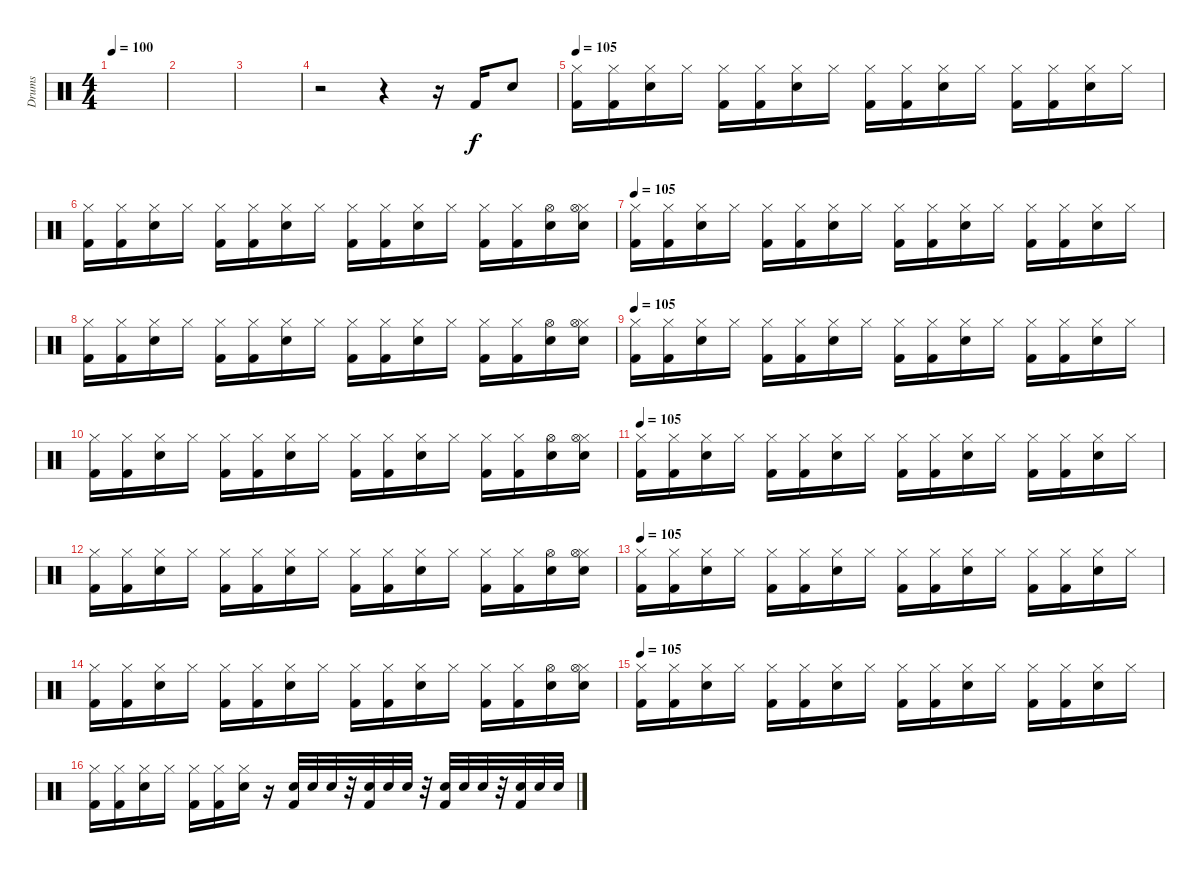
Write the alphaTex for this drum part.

\track ("Drums" "Drums") {instrument percussion}
\staff {score}
\articulation defaults
\ts (4 4)
\tempo 100
\clef neutral
\ks c
|
|
|
r.2 r.4 r.16 "Kick (hit) 2".16 "Snare (hit) 2".8 |
\tempo 105
("Hi-Hat (closed)" "Kick (hit) 2").16 ("Hi-Hat (closed)" "Kick (hit) 2").16 ("Hi-Hat (closed)" "Snare (hit) 2").16 "Hi-Hat (closed)".16 ("Hi-Hat (closed)" "Kick (hit) 2").16 ("Hi-Hat (closed)" "Kick (hit) 2").16 ("Hi-Hat (closed)" "Snare (hit) 2").16 "Hi-Hat (closed)".16 ("Hi-Hat (closed)" "Kick (hit) 2").16 ("Hi-Hat (closed)" "Kick (hit) 2").16 ("Hi-Hat (closed)" "Snare (hit) 2").16 "Hi-Hat (closed)".16 ("Hi-Hat (closed)" "Kick (hit) 2").16 ("Hi-Hat (closed)" "Kick (hit) 2").16 ("Hi-Hat (closed)" "Snare (hit) 2").16 "Hi-Hat (closed)".16 |
("Hi-Hat (closed)" "Kick (hit) 2").16 ("Hi-Hat (closed)" "Kick (hit) 2").16 ("Hi-Hat (closed)" "Snare (hit) 2").16 "Hi-Hat (closed)".16 ("Hi-Hat (closed)" "Kick (hit) 2").16 ("Hi-Hat (closed)" "Kick (hit) 2").16 ("Hi-Hat (closed)" "Snare (hit) 2").16 "Hi-Hat (closed)".16 ("Hi-Hat (closed)" "Kick (hit) 2").16 ("Hi-Hat (closed)" "Kick (hit) 2").16 ("Hi-Hat (closed)" "Snare (hit) 2").16 "Hi-Hat (closed)".16 ("Hi-Hat (closed)" "Kick (hit) 2").16 ("Hi-Hat (closed)" "Kick (hit) 2").16 ("Hi-Hat (open)" "Snare (hit) 2").16 ("Hi-Hat (closed)" "Hi-Hat (open)" "Snare (hit) 2").16 |
\tempo 105
("Hi-Hat (closed)" "Kick (hit) 2").16 ("Hi-Hat (closed)" "Kick (hit) 2").16 ("Hi-Hat (closed)" "Snare (hit) 2").16 "Hi-Hat (closed)".16 ("Hi-Hat (closed)" "Kick (hit) 2").16 ("Hi-Hat (closed)" "Kick (hit) 2").16 ("Hi-Hat (closed)" "Snare (hit) 2").16 "Hi-Hat (closed)".16 ("Hi-Hat (closed)" "Kick (hit) 2").16 ("Hi-Hat (closed)" "Kick (hit) 2").16 ("Hi-Hat (closed)" "Snare (hit) 2").16 "Hi-Hat (closed)".16 ("Hi-Hat (closed)" "Kick (hit) 2").16 ("Hi-Hat (closed)" "Kick (hit) 2").16 ("Hi-Hat (closed)" "Snare (hit) 2").16 "Hi-Hat (closed)".16 |
("Hi-Hat (closed)" "Kick (hit) 2").16 ("Hi-Hat (closed)" "Kick (hit) 2").16 ("Hi-Hat (closed)" "Snare (hit) 2").16 "Hi-Hat (closed)".16 ("Hi-Hat (closed)" "Kick (hit) 2").16 ("Hi-Hat (closed)" "Kick (hit) 2").16 ("Hi-Hat (closed)" "Snare (hit) 2").16 "Hi-Hat (closed)".16 ("Hi-Hat (closed)" "Kick (hit) 2").16 ("Hi-Hat (closed)" "Kick (hit) 2").16 ("Hi-Hat (closed)" "Snare (hit) 2").16 "Hi-Hat (closed)".16 ("Hi-Hat (closed)" "Kick (hit) 2").16 ("Hi-Hat (closed)" "Kick (hit) 2").16 ("Hi-Hat (open)" "Snare (hit) 2").16 ("Hi-Hat (closed)" "Hi-Hat (open)" "Snare (hit) 2").16 |
\tempo 105
("Hi-Hat (closed)" "Kick (hit) 2").16 ("Hi-Hat (closed)" "Kick (hit) 2").16 ("Hi-Hat (closed)" "Snare (hit) 2").16 "Hi-Hat (closed)".16 ("Hi-Hat (closed)" "Kick (hit) 2").16 ("Hi-Hat (closed)" "Kick (hit) 2").16 ("Hi-Hat (closed)" "Snare (hit) 2").16 "Hi-Hat (closed)".16 ("Hi-Hat (closed)" "Kick (hit) 2").16 ("Hi-Hat (closed)" "Kick (hit) 2").16 ("Hi-Hat (closed)" "Snare (hit) 2").16 "Hi-Hat (closed)".16 ("Hi-Hat (closed)" "Kick (hit) 2").16 ("Hi-Hat (closed)" "Kick (hit) 2").16 ("Hi-Hat (closed)" "Snare (hit) 2").16 "Hi-Hat (closed)".16 |
("Hi-Hat (closed)" "Kick (hit) 2").16 ("Hi-Hat (closed)" "Kick (hit) 2").16 ("Hi-Hat (closed)" "Snare (hit) 2").16 "Hi-Hat (closed)".16 ("Hi-Hat (closed)" "Kick (hit) 2").16 ("Hi-Hat (closed)" "Kick (hit) 2").16 ("Hi-Hat (closed)" "Snare (hit) 2").16 "Hi-Hat (closed)".16 ("Hi-Hat (closed)" "Kick (hit) 2").16 ("Hi-Hat (closed)" "Kick (hit) 2").16 ("Hi-Hat (closed)" "Snare (hit) 2").16 "Hi-Hat (closed)".16 ("Hi-Hat (closed)" "Kick (hit) 2").16 ("Hi-Hat (closed)" "Kick (hit) 2").16 ("Hi-Hat (open)" "Snare (hit) 2").16 ("Hi-Hat (closed)" "Hi-Hat (open)" "Snare (hit) 2").16 |
\tempo 105
("Hi-Hat (closed)" "Kick (hit) 2").16 ("Hi-Hat (closed)" "Kick (hit) 2").16 ("Hi-Hat (closed)" "Snare (hit) 2").16 "Hi-Hat (closed)".16 ("Hi-Hat (closed)" "Kick (hit) 2").16 ("Hi-Hat (closed)" "Kick (hit) 2").16 ("Hi-Hat (closed)" "Snare (hit) 2").16 "Hi-Hat (closed)".16 ("Hi-Hat (closed)" "Kick (hit) 2").16 ("Hi-Hat (closed)" "Kick (hit) 2").16 ("Hi-Hat (closed)" "Snare (hit) 2").16 "Hi-Hat (closed)".16 ("Hi-Hat (closed)" "Kick (hit) 2").16 ("Hi-Hat (closed)" "Kick (hit) 2").16 ("Hi-Hat (closed)" "Snare (hit) 2").16 "Hi-Hat (closed)".16 |
("Hi-Hat (closed)" "Kick (hit) 2").16 ("Hi-Hat (closed)" "Kick (hit) 2").16 ("Hi-Hat (closed)" "Snare (hit) 2").16 "Hi-Hat (closed)".16 ("Hi-Hat (closed)" "Kick (hit) 2").16 ("Hi-Hat (closed)" "Kick (hit) 2").16 ("Hi-Hat (closed)" "Snare (hit) 2").16 "Hi-Hat (closed)".16 ("Hi-Hat (closed)" "Kick (hit) 2").16 ("Hi-Hat (closed)" "Kick (hit) 2").16 ("Hi-Hat (closed)" "Snare (hit) 2").16 "Hi-Hat (closed)".16 ("Hi-Hat (closed)" "Kick (hit) 2").16 ("Hi-Hat (closed)" "Kick (hit) 2").16 ("Hi-Hat (open)" "Snare (hit) 2").16 ("Hi-Hat (closed)" "Hi-Hat (open)" "Snare (hit) 2").16 |
\tempo 105
("Hi-Hat (closed)" "Kick (hit) 2").16 ("Hi-Hat (closed)" "Kick (hit) 2").16 ("Hi-Hat (closed)" "Snare (hit) 2").16 "Hi-Hat (closed)".16 ("Hi-Hat (closed)" "Kick (hit) 2").16 ("Hi-Hat (closed)" "Kick (hit) 2").16 ("Hi-Hat (closed)" "Snare (hit) 2").16 "Hi-Hat (closed)".16 ("Hi-Hat (closed)" "Kick (hit) 2").16 ("Hi-Hat (closed)" "Kick (hit) 2").16 ("Hi-Hat (closed)" "Snare (hit) 2").16 "Hi-Hat (closed)".16 ("Hi-Hat (closed)" "Kick (hit) 2").16 ("Hi-Hat (closed)" "Kick (hit) 2").16 ("Hi-Hat (closed)" "Snare (hit) 2").16 "Hi-Hat (closed)".16 |
("Hi-Hat (closed)" "Kick (hit) 2").16 ("Hi-Hat (closed)" "Kick (hit) 2").16 ("Hi-Hat (closed)" "Snare (hit) 2").16 "Hi-Hat (closed)".16 ("Hi-Hat (closed)" "Kick (hit) 2").16 ("Hi-Hat (closed)" "Kick (hit) 2").16 ("Hi-Hat (closed)" "Snare (hit) 2").16 "Hi-Hat (closed)".16 ("Hi-Hat (closed)" "Kick (hit) 2").16 ("Hi-Hat (closed)" "Kick (hit) 2").16 ("Hi-Hat (closed)" "Snare (hit) 2").16 "Hi-Hat (closed)".16 ("Hi-Hat (closed)" "Kick (hit) 2").16 ("Hi-Hat (closed)" "Kick (hit) 2").16 ("Hi-Hat (open)" "Snare (hit) 2").16 ("Hi-Hat (closed)" "Hi-Hat (open)" "Snare (hit) 2").16 |
\tempo 105
("Hi-Hat (closed)" "Kick (hit) 2").16 ("Hi-Hat (closed)" "Kick (hit) 2").16 ("Hi-Hat (closed)" "Snare (hit) 2").16 "Hi-Hat (closed)".16 ("Hi-Hat (closed)" "Kick (hit) 2").16 ("Hi-Hat (closed)" "Kick (hit) 2").16 ("Hi-Hat (closed)" "Snare (hit) 2").16 "Hi-Hat (closed)".16 ("Hi-Hat (closed)" "Kick (hit) 2").16 ("Hi-Hat (closed)" "Kick (hit) 2").16 ("Hi-Hat (closed)" "Snare (hit) 2").16 "Hi-Hat (closed)".16 ("Hi-Hat (closed)" "Kick (hit) 2").16 ("Hi-Hat (closed)" "Kick (hit) 2").16 ("Hi-Hat (closed)" "Snare (hit) 2").16 "Hi-Hat (closed)".16 |
("Hi-Hat (closed)" "Kick (hit) 2").16 ("Hi-Hat (closed)" "Kick (hit) 2").16 ("Hi-Hat (closed)" "Snare (hit) 2").16 "Hi-Hat (closed)".16 ("Hi-Hat (closed)" "Kick (hit) 2").16 ("Hi-Hat (closed)" "Kick (hit) 2").16 ("Hi-Hat (closed)" "Snare (hit) 2").16 r.16 ("Snare (hit) 2" "Kick (hit) 2").32 "Snare (hit) 2".32 "Snare (hit) 2".32 r.32 ("Snare (hit) 2" "Kick (hit) 2").32 "Snare (hit) 2".32 "Snare (hit) 2".32 r.32 ("Snare (hit) 2" "Kick (hit) 2").32 "Snare (hit) 2".32 "Snare (hit) 2".32 r.32 ("Snare (hit) 2" "Kick (hit) 2").32 "Snare (hit) 2".32 "Snare (hit) 2".32
